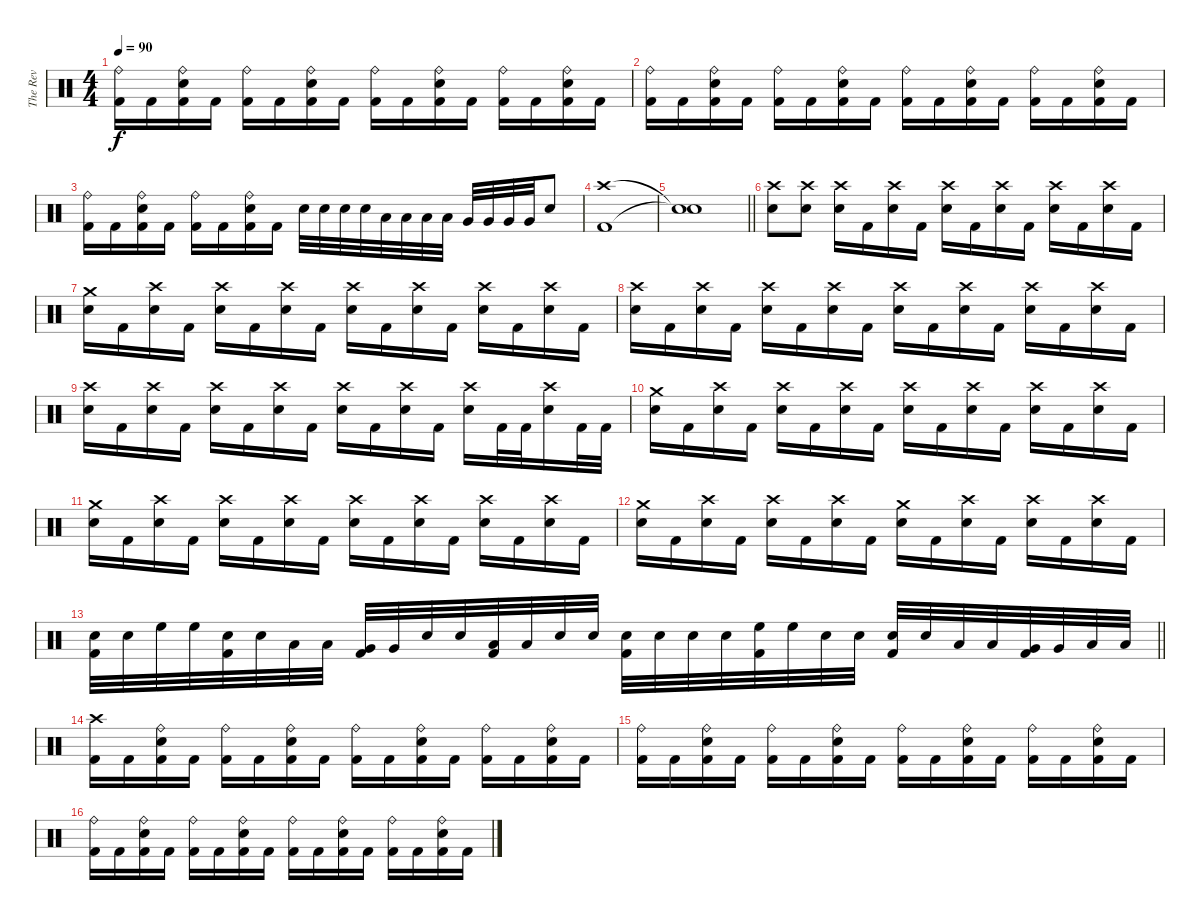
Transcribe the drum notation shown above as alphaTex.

\track ("The Rev" "The Rev") {instrument percussion}
\staff {score}
\articulation defaults
\ts (4 4)
\tempo 90
\clef neutral
\ks c
("Ride (bell)" "Kick (hit) 2").16{dy f} "Kick (hit) 2".16 ("Ride (bell)" "Electric Snare (hit)" "Kick (hit) 2").16 "Kick (hit) 2".16 ("Ride (bell)" "Kick (hit) 2").16 "Kick (hit) 2".16 ("Ride (bell)" "Electric Snare (hit)" "Kick (hit) 2").16 "Kick (hit) 2".16 ("Ride (bell)" "Kick (hit) 2").16 "Kick (hit) 2".16 ("Ride (bell)" "Electric Snare (hit)" "Kick (hit) 2").16 "Kick (hit) 2".16 ("Ride (bell)" "Kick (hit) 2").16 "Kick (hit) 2".16 ("Ride (bell)" "Electric Snare (hit)" "Kick (hit) 2").16 "Kick (hit) 2".16 |
("Ride (bell)" "Kick (hit) 2").16 "Kick (hit) 2".16 ("Ride (bell)" "Electric Snare (hit)" "Kick (hit) 2").16 "Kick (hit) 2".16 ("Ride (bell)" "Kick (hit) 2").16 "Kick (hit) 2".16 ("Ride (bell)" "Electric Snare (hit)" "Kick (hit) 2").16 "Kick (hit) 2".16 ("Ride (bell)" "Kick (hit) 2").16 "Kick (hit) 2".16 ("Ride (bell)" "Electric Snare (hit)" "Kick (hit) 2").16 "Kick (hit) 2".16 ("Ride (bell)" "Kick (hit) 2").16 "Kick (hit) 2".16 ("Ride (bell)" "Electric Snare (hit)" "Kick (hit) 2").16 "Kick (hit) 2".16 |
("Ride (bell)" "Kick (hit) 2").16 "Kick (hit) 2".16 ("Ride (bell)" "Electric Snare (hit)" "Kick (hit) 2").16 "Kick (hit) 2".16 ("Ride (bell)" "Kick (hit) 2").16 "Kick (hit) 2".16 ("Ride (bell)" "Electric Snare (hit)" "Kick (hit) 2").16 "Kick (hit) 2".16 "Electric Snare (hit)".32 "Electric Snare (hit)".32 "Electric Snare (hit)".32 "Electric Snare (hit)".32 "Low Tom (hit)".32 "Low Tom (hit)".32 "Low Tom (hit)".32 "Low Tom (hit)".32 "Very Low Tom (hit)".32 "Very Low Tom (hit)".32 "Very Low Tom (hit)".32 "Very Low Tom (hit)".32 "Electric Snare (hit)".8 |
("Crash high (hit)" "Kick (hit) 2").1 |
\barLineRight lightlight
("Snare (hit)"{t} "Snare (hit)"{t}).1 |
("Crash high (hit)" "Electric Snare (hit)").8 ("Crash high (hit)" "Electric Snare (hit)").8 ("Crash high (hit)" "Electric Snare (hit)").16 "Kick (hit) 2".16 ("Crash high (hit)" "Electric Snare (hit)").16 "Kick (hit) 2".16 ("Crash high (hit)" "Electric Snare (hit)").16 "Kick (hit) 2".16 ("Crash high (hit)" "Electric Snare (hit)").16 "Kick (hit) 2".16 ("Crash high (hit)" "Electric Snare (hit)").16 "Kick (hit) 2".16 ("Crash high (hit)" "Electric Snare (hit)").16 "Kick (hit) 2".16 |
("Crash medium (hit)" "Electric Snare (hit)").16 "Kick (hit) 2".16 ("Crash high (hit)" "Electric Snare (hit)").16 "Kick (hit) 2".16 ("Crash high (hit)" "Electric Snare (hit)").16 "Kick (hit) 2".16 ("Crash high (hit)" "Electric Snare (hit)").16 "Kick (hit) 2".16 ("Crash high (hit)" "Electric Snare (hit)").16 "Kick (hit) 2".16 ("Crash high (hit)" "Electric Snare (hit)").16 "Kick (hit) 2".16 ("Crash high (hit)" "Electric Snare (hit)").16 "Kick (hit) 2".16 ("Crash high (hit)" "Electric Snare (hit)").16 "Kick (hit) 2".16 |
("Crash high (hit)" "Electric Snare (hit)").16 "Kick (hit) 2".16 ("Crash high (hit)" "Electric Snare (hit)").16 "Kick (hit) 2".16 ("Crash high (hit)" "Electric Snare (hit)").16 "Kick (hit) 2".16 ("Crash high (hit)" "Electric Snare (hit)").16 "Kick (hit) 2".16 ("Crash high (hit)" "Electric Snare (hit)").16 "Kick (hit) 2".16 ("Crash high (hit)" "Electric Snare (hit)").16 "Kick (hit) 2".16 ("Crash high (hit)" "Electric Snare (hit)").16 "Kick (hit) 2".16 ("Crash high (hit)" "Electric Snare (hit)").16 "Kick (hit) 2".16 |
("Crash high (hit)" "Electric Snare (hit)").16 "Kick (hit) 2".16 ("Crash high (hit)" "Electric Snare (hit)").16 "Kick (hit) 2".16 ("Crash high (hit)" "Electric Snare (hit)").16 "Kick (hit) 2".16 ("Crash high (hit)" "Electric Snare (hit)").16 "Kick (hit) 2".16 ("Crash high (hit)" "Electric Snare (hit)").16 "Kick (hit) 2".16 ("Crash high (hit)" "Electric Snare (hit)").16 "Kick (hit) 2".16 ("Crash high (hit)" "Electric Snare (hit)").16 "Kick (hit) 2".32 "Kick (hit) 2".32 ("Crash high (hit)" "Electric Snare (hit)").16 "Kick (hit) 2".32 "Kick (hit) 2".32 |
("Crash medium (hit)" "Electric Snare (hit)").16 "Kick (hit) 2".16 ("Crash high (hit)" "Electric Snare (hit)").16 "Kick (hit) 2".16 ("Crash high (hit)" "Electric Snare (hit)").16 "Kick (hit) 2".16 ("Crash high (hit)" "Electric Snare (hit)").16 "Kick (hit) 2".16 ("Crash high (hit)" "Electric Snare (hit)").16 "Kick (hit) 2".16 ("Crash high (hit)" "Electric Snare (hit)").16 "Kick (hit) 2".16 ("Crash high (hit)" "Electric Snare (hit)").16 "Kick (hit) 2".16 ("Crash high (hit)" "Electric Snare (hit)").16 "Kick (hit) 2".16 |
("Crash medium (hit)" "Electric Snare (hit)").16 "Kick (hit) 2".16 ("Crash high (hit)" "Electric Snare (hit)").16 "Kick (hit) 2".16 ("Crash high (hit)" "Electric Snare (hit)").16 "Kick (hit) 2".16 ("Crash high (hit)" "Electric Snare (hit)").16 "Kick (hit) 2".16 ("Crash high (hit)" "Electric Snare (hit)").16 "Kick (hit) 2".16 ("Crash high (hit)" "Electric Snare (hit)").16 "Kick (hit) 2".16 ("Crash high (hit)" "Electric Snare (hit)").16 "Kick (hit) 2".16 ("Crash high (hit)" "Electric Snare (hit)").16 "Kick (hit) 2".16 |
("Crash medium (hit)" "Electric Snare (hit)").16 "Kick (hit) 2".16 ("Crash high (hit)" "Electric Snare (hit)").16 "Kick (hit) 2".16 ("Crash high (hit)" "Electric Snare (hit)").16 "Kick (hit) 2".16 ("Crash high (hit)" "Electric Snare (hit)").16 "Kick (hit) 2".16 ("Crash medium (hit)" "Electric Snare (hit)").16 "Kick (hit) 2".16 ("Crash high (hit)" "Electric Snare (hit)").16 "Kick (hit) 2".16 ("Crash high (hit)" "Electric Snare (hit)").16 "Kick (hit) 2".16 ("Crash high (hit)" "Electric Snare (hit)").16 "Kick (hit) 2".16 |
\barLineRight lightlight
("Electric Snare (hit)" "Kick (hit) 2").32 "Electric Snare (hit)".32 "High Floor Tom (hit)".32 "High Floor Tom (hit)".32 ("Electric Snare (hit)" "Kick (hit) 2").32 "Electric Snare (hit)".32 "Low Tom (hit)".32 "Low Tom (hit)".32 ("Very Low Tom (hit)" "Kick (hit) 2").32 "Very Low Tom (hit)".32 "Electric Snare (hit)".32 "Electric Snare (hit)".32 ("Low Floor Tom (hit)" "Kick (hit) 2").32 "Low Floor Tom (hit)".32 "Electric Snare (hit)".32 "Electric Snare (hit)".32 ("Electric Snare (hit)" "Kick (hit) 2").32 "Electric Snare (hit)".32 "Electric Snare (hit)".32 "Electric Snare (hit)".32 ("High Floor Tom (hit)" "Kick (hit) 2").32 "High Floor Tom (hit)".32 "Electric Snare (hit)".32 "Electric Snare (hit)".32 ("Electric Snare (hit)" "Kick (hit) 2").32 "Electric Snare (hit)".32 "Low Tom (hit)".32 "Low Tom (hit)".32 ("Very Low Tom (hit)" "Kick (hit) 2").32 "Very Low Tom (hit)".32 "Low Floor Tom (hit)".32 "Low Floor Tom (hit)".32 |
("Crash high (hit)" "Kick (hit) 2").16 "Kick (hit) 2".16 ("Ride (bell)" "Electric Snare (hit)" "Kick (hit) 2").16 "Kick (hit) 2".16 ("Ride (bell)" "Kick (hit) 2").16 "Kick (hit) 2".16 ("Ride (bell)" "Electric Snare (hit)" "Kick (hit) 2").16 "Kick (hit) 2".16 ("Ride (bell)" "Kick (hit) 2").16 "Kick (hit) 2".16 ("Ride (bell)" "Electric Snare (hit)" "Kick (hit) 2").16 "Kick (hit) 2".16 ("Ride (bell)" "Kick (hit) 2").16 "Kick (hit) 2".16 ("Ride (bell)" "Electric Snare (hit)" "Kick (hit) 2").16 "Kick (hit) 2".16 |
("Ride (bell)" "Kick (hit) 2").16 "Kick (hit) 2".16 ("Ride (bell)" "Electric Snare (hit)" "Kick (hit) 2").16 "Kick (hit) 2".16 ("Ride (bell)" "Kick (hit) 2").16 "Kick (hit) 2".16 ("Ride (bell)" "Electric Snare (hit)" "Kick (hit) 2").16 "Kick (hit) 2".16 ("Ride (bell)" "Kick (hit) 2").16 "Kick (hit) 2".16 ("Ride (bell)" "Electric Snare (hit)" "Kick (hit) 2").16 "Kick (hit) 2".16 ("Ride (bell)" "Kick (hit) 2").16 "Kick (hit) 2".16 ("Ride (bell)" "Electric Snare (hit)" "Kick (hit) 2").16 "Kick (hit) 2".16 |
("Ride (bell)" "Kick (hit) 2").16 "Kick (hit) 2".16 ("Ride (bell)" "Electric Snare (hit)" "Kick (hit) 2").16 "Kick (hit) 2".16 ("Ride (bell)" "Kick (hit) 2").16 "Kick (hit) 2".16 ("Ride (bell)" "Electric Snare (hit)" "Kick (hit) 2").16 "Kick (hit) 2".16 ("Ride (bell)" "Kick (hit) 2").16 "Kick (hit) 2".16 ("Ride (bell)" "Electric Snare (hit)" "Kick (hit) 2").16 "Kick (hit) 2".16 ("Ride (bell)" "Kick (hit) 2").16 "Kick (hit) 2".16 ("Ride (bell)" "Electric Snare (hit)" "Kick (hit) 2").16 "Kick (hit) 2".16
